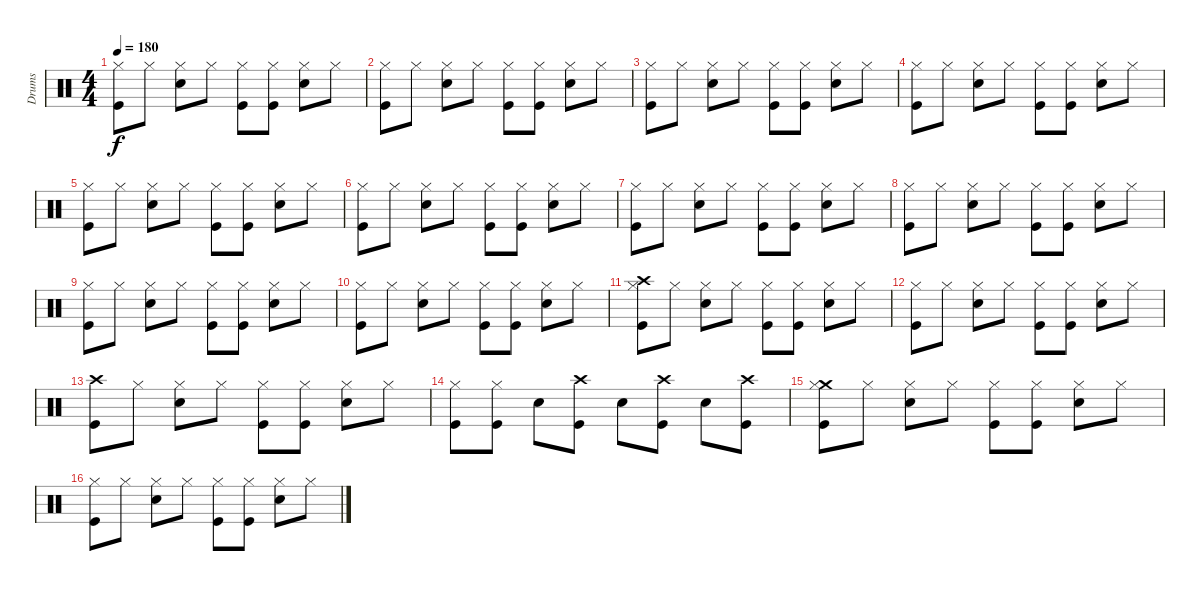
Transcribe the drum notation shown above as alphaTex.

\track ("Drums" "Drums") {instrument percussion}
\staff {score}
\articulation defaults
\ts (4 4)
\tempo 180
\clef neutral
\ks c
("Hi-Hat (closed)" "Kick (hit)").8{dy f} "Hi-Hat (closed)".8 ("Hi-Hat (closed)" "Electric Snare (hit)").8 "Hi-Hat (closed)".8 ("Kick (hit)" "Hi-Hat (closed)").8 ("Hi-Hat (closed)" "Kick (hit)").8 ("Hi-Hat (closed)" "Electric Snare (hit)").8 "Hi-Hat (closed)".8 |
("Hi-Hat (closed)" "Kick (hit)").8 "Hi-Hat (closed)".8 ("Hi-Hat (closed)" "Electric Snare (hit)").8 "Hi-Hat (closed)".8 ("Kick (hit)" "Hi-Hat (closed)").8 ("Hi-Hat (closed)" "Kick (hit)").8 ("Hi-Hat (closed)" "Electric Snare (hit)").8 "Hi-Hat (closed)".8 |
("Hi-Hat (closed)" "Kick (hit)").8 "Hi-Hat (closed)".8 ("Hi-Hat (closed)" "Electric Snare (hit)").8 "Hi-Hat (closed)".8 ("Kick (hit)" "Hi-Hat (closed)").8 ("Hi-Hat (closed)" "Kick (hit)").8 ("Hi-Hat (closed)" "Electric Snare (hit)").8 "Hi-Hat (closed)".8 |
("Hi-Hat (closed)" "Kick (hit)").8 "Hi-Hat (closed)".8 ("Hi-Hat (closed)" "Electric Snare (hit)").8 "Hi-Hat (closed)".8 ("Kick (hit)" "Hi-Hat (closed)").8 ("Hi-Hat (closed)" "Kick (hit)").8 ("Hi-Hat (closed)" "Electric Snare (hit)").8 "Hi-Hat (closed)".8 |
("Hi-Hat (closed)" "Kick (hit)").8 "Hi-Hat (closed)".8 ("Hi-Hat (closed)" "Electric Snare (hit)").8 "Hi-Hat (closed)".8 ("Kick (hit)" "Hi-Hat (closed)").8 ("Hi-Hat (closed)" "Kick (hit)").8 ("Hi-Hat (closed)" "Electric Snare (hit)").8 "Hi-Hat (closed)".8 |
("Hi-Hat (closed)" "Kick (hit)").8 "Hi-Hat (closed)".8 ("Hi-Hat (closed)" "Electric Snare (hit)").8 "Hi-Hat (closed)".8 ("Kick (hit)" "Hi-Hat (closed)").8 ("Hi-Hat (closed)" "Kick (hit)").8 ("Hi-Hat (closed)" "Electric Snare (hit)").8 "Hi-Hat (closed)".8 |
("Hi-Hat (closed)" "Kick (hit)").8 "Hi-Hat (closed)".8 ("Hi-Hat (closed)" "Electric Snare (hit)").8 "Hi-Hat (closed)".8 ("Kick (hit)" "Hi-Hat (closed)").8 ("Hi-Hat (closed)" "Kick (hit)").8 ("Hi-Hat (closed)" "Electric Snare (hit)").8 "Hi-Hat (closed)".8 |
("Hi-Hat (closed)" "Kick (hit)").8 "Hi-Hat (closed)".8 ("Hi-Hat (closed)" "Electric Snare (hit)").8 "Hi-Hat (closed)".8 ("Kick (hit)" "Hi-Hat (closed)").8 ("Hi-Hat (closed)" "Kick (hit)").8 ("Hi-Hat (closed)" "Electric Snare (hit)").8 "Hi-Hat (closed)".8 |
("Hi-Hat (closed)" "Kick (hit)").8 "Hi-Hat (closed)".8 ("Hi-Hat (closed)" "Electric Snare (hit)").8 "Hi-Hat (closed)".8 ("Kick (hit)" "Hi-Hat (closed)").8 ("Hi-Hat (closed)" "Kick (hit)").8 ("Hi-Hat (closed)" "Electric Snare (hit)").8 "Hi-Hat (closed)".8 |
("Hi-Hat (closed)" "Kick (hit)").8 "Hi-Hat (closed)".8 ("Hi-Hat (closed)" "Electric Snare (hit)").8 "Hi-Hat (closed)".8 ("Kick (hit)" "Hi-Hat (closed)").8 ("Hi-Hat (closed)" "Kick (hit)").8 ("Hi-Hat (closed)" "Electric Snare (hit)").8 "Hi-Hat (closed)".8 |
("Crash high (hit)" "Hi-Hat (closed)" "Kick (hit)").8 "Hi-Hat (closed)".8 ("Hi-Hat (closed)" "Electric Snare (hit)").8 "Hi-Hat (closed)".8 ("Kick (hit)" "Hi-Hat (closed)").8 ("Hi-Hat (closed)" "Kick (hit)").8 ("Hi-Hat (closed)" "Electric Snare (hit)").8 "Hi-Hat (closed)".8 |
("Hi-Hat (closed)" "Kick (hit)").8 "Hi-Hat (closed)".8 ("Hi-Hat (closed)" "Electric Snare (hit)").8 "Hi-Hat (closed)".8 ("Kick (hit)" "Hi-Hat (closed)").8 ("Hi-Hat (closed)" "Kick (hit)").8 ("Hi-Hat (closed)" "Electric Snare (hit)").8 "Hi-Hat (closed)".8 |
("Crash high (hit)" "Kick (hit)").8 "Hi-Hat (closed)".8 ("Hi-Hat (closed)" "Electric Snare (hit)").8 "Hi-Hat (closed)".8 ("Kick (hit)" "Hi-Hat (closed)").8 ("Hi-Hat (closed)" "Kick (hit)").8 ("Hi-Hat (closed)" "Electric Snare (hit)").8 "Hi-Hat (closed)".8 |
("Hi-Hat (closed)" "Kick (hit)").8 ("Hi-Hat (closed)" "Kick (hit)").8 "Electric Snare (hit)".8 ("Crash high (hit)" "Kick (hit)").8 "Electric Snare (hit)".8 ("Kick (hit)" "Crash high (hit)").8 "Electric Snare (hit)".8 ("Kick (hit)" "Crash high (hit)").8 |
("Crash medium (hit)" "Hi-Hat (closed)" "Kick (hit)").8 "Hi-Hat (closed)".8 ("Hi-Hat (closed)" "Electric Snare (hit)").8 "Hi-Hat (closed)".8 ("Kick (hit)" "Hi-Hat (closed)").8 ("Hi-Hat (closed)" "Kick (hit)").8 ("Hi-Hat (closed)" "Electric Snare (hit)").8 "Hi-Hat (closed)".8 |
("Hi-Hat (closed)" "Kick (hit)").8 "Hi-Hat (closed)".8 ("Hi-Hat (closed)" "Electric Snare (hit)").8 "Hi-Hat (closed)".8 ("Kick (hit)" "Hi-Hat (closed)").8 ("Hi-Hat (closed)" "Kick (hit)").8 ("Hi-Hat (closed)" "Electric Snare (hit)").8 "Hi-Hat (closed)".8
